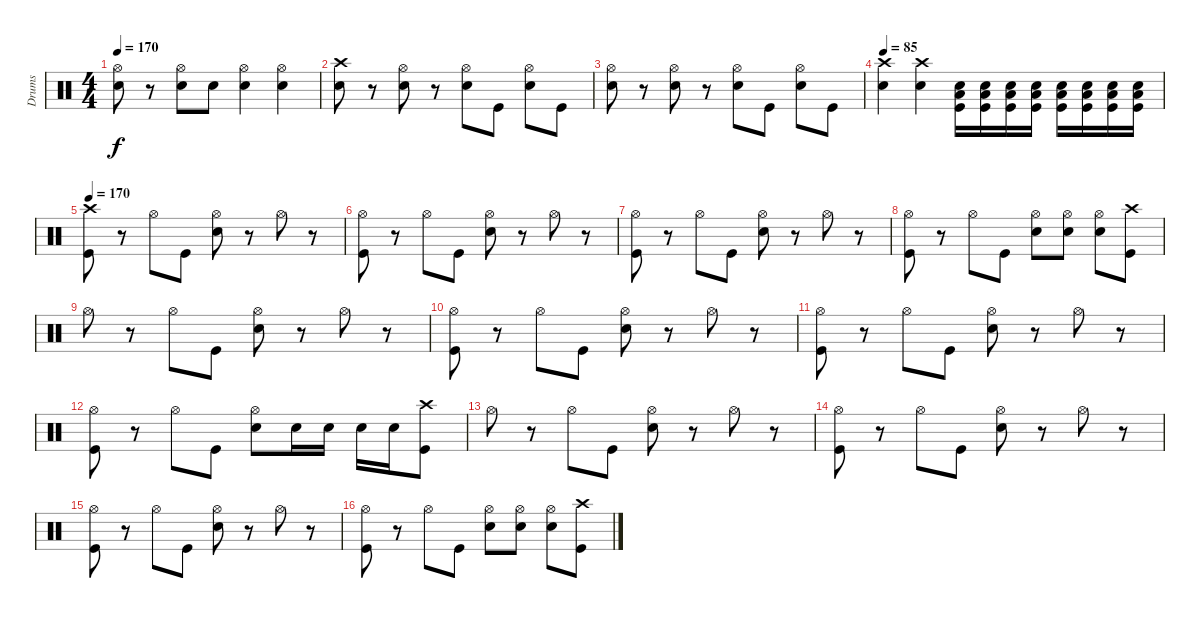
\track ("Drums" "Drums") {instrument percussion}
\staff {score}
\articulation defaults
\ts (4 4)
\tempo 170
\clef neutral
\ks c
("Hi-Hat (open)" "Snare (hit) 2").8{dy f} r.8 ("Hi-Hat (open)" "Snare (hit) 2").8 "Snare (hit) 2".8 ("Hi-Hat (open)" "Snare (hit) 2").4 ("Hi-Hat (open)" "Snare (hit) 2").4 |
("Crash high (hit)" "Snare (hit) 2").8 r.8 ("Hi-Hat (open)" "Snare (hit) 2").8 r.8 ("Hi-Hat (open)" "Snare (hit) 2").8 "Kick (hit)".8 ("Hi-Hat (open)" "Snare (hit) 2").8 "Kick (hit)".8 |
("Hi-Hat (open)" "Snare (hit) 2").8 r.8 ("Hi-Hat (open)" "Snare (hit) 2").8 r.8 ("Hi-Hat (open)" "Snare (hit) 2").8 "Kick (hit)".8 ("Hi-Hat (open)" "Snare (hit) 2").8 "Kick (hit)".8 |
\tempo 85
("Crash high (hit)" "Snare (hit) 2").4 ("Crash high (hit)" "Snare (hit) 2").4 ("Snare (hit) 2" "Low Floor Tom (hit)" "Kick (hit)").16{volume 9} ("Snare (hit) 2" "Low Floor Tom (hit)" "Kick (hit)").16{volume 10} ("Snare (hit) 2" "Low Floor Tom (hit)" "Kick (hit)").16{volume 11} ("Snare (hit) 2" "Low Floor Tom (hit)" "Kick (hit)").16{volume 12} ("Snare (hit) 2" "Low Floor Tom (hit)" "Kick (hit)").16{volume 13} ("Snare (hit) 2" "Low Floor Tom (hit)" "Kick (hit)").16{volume 14} ("Snare (hit) 2" "Low Floor Tom (hit)" "Kick (hit)").16{volume 15} ("Snare (hit) 2" "Low Floor Tom (hit)" "Kick (hit)").16{volume 16} |
\tempo 170
("Crash high (hit)" "Kick (hit)").8 r.8 "Hi-Hat (open)".8 "Kick (hit)".8 ("Hi-Hat (open)" "Snare (hit) 2").8 r.8 "Hi-Hat (open)".8 r.8 |
("Hi-Hat (open)" "Kick (hit)").8 r.8 "Hi-Hat (open)".8 "Kick (hit)".8 ("Hi-Hat (open)" "Snare (hit) 2").8 r.8 "Hi-Hat (open)".8 r.8 |
("Hi-Hat (open)" "Kick (hit)").8 r.8 "Hi-Hat (open)".8 "Kick (hit)".8 ("Hi-Hat (open)" "Snare (hit) 2").8 r.8 "Hi-Hat (open)".8 r.8 |
("Hi-Hat (open)" "Kick (hit)").8 r.8 "Hi-Hat (open)".8 "Kick (hit)".8 ("Hi-Hat (open)" "Snare (hit) 2").8 ("Hi-Hat (open)" "Snare (hit) 2").8 ("Hi-Hat (open)" "Snare (hit) 2").8 ("Crash high (hit)" "Kick (hit)").8 |
"Hi-Hat (open)".8 r.8 "Hi-Hat (open)".8 "Kick (hit)".8 ("Hi-Hat (open)" "Snare (hit) 2").8 r.8 "Hi-Hat (open)".8 r.8 |
("Hi-Hat (open)" "Kick (hit)").8 r.8 "Hi-Hat (open)".8 "Kick (hit)".8 ("Hi-Hat (open)" "Snare (hit) 2").8 r.8 "Hi-Hat (open)".8 r.8 |
("Hi-Hat (open)" "Kick (hit)").8 r.8 "Hi-Hat (open)".8 "Kick (hit)".8 ("Hi-Hat (open)" "Snare (hit) 2").8 r.8 "Hi-Hat (open)".8 r.8 |
("Hi-Hat (open)" "Kick (hit)").8 r.8 "Hi-Hat (open)".8 "Kick (hit)".8 ("Hi-Hat (open)" "Snare (hit) 2").8 "Snare (hit) 2".16 "Snare (hit) 2".16 "Snare (hit) 2".16 "Snare (hit) 2".16 ("Crash high (hit)" "Kick (hit)").8 |
"Hi-Hat (open)".8 r.8 "Hi-Hat (open)".8 "Kick (hit)".8 ("Hi-Hat (open)" "Snare (hit) 2").8 r.8 "Hi-Hat (open)".8 r.8 |
("Hi-Hat (open)" "Kick (hit)").8 r.8 "Hi-Hat (open)".8 "Kick (hit)".8 ("Hi-Hat (open)" "Snare (hit) 2").8 r.8 "Hi-Hat (open)".8 r.8 |
("Hi-Hat (open)" "Kick (hit)").8 r.8 "Hi-Hat (open)".8 "Kick (hit)".8 ("Hi-Hat (open)" "Snare (hit) 2").8 r.8 "Hi-Hat (open)".8 r.8 |
("Hi-Hat (open)" "Kick (hit)").8 r.8 "Hi-Hat (open)".8 "Kick (hit)".8 ("Hi-Hat (open)" "Snare (hit) 2").8 ("Hi-Hat (open)" "Snare (hit) 2").8 ("Hi-Hat (open)" "Snare (hit) 2").8 ("Crash high (hit)" "Kick (hit)").8
